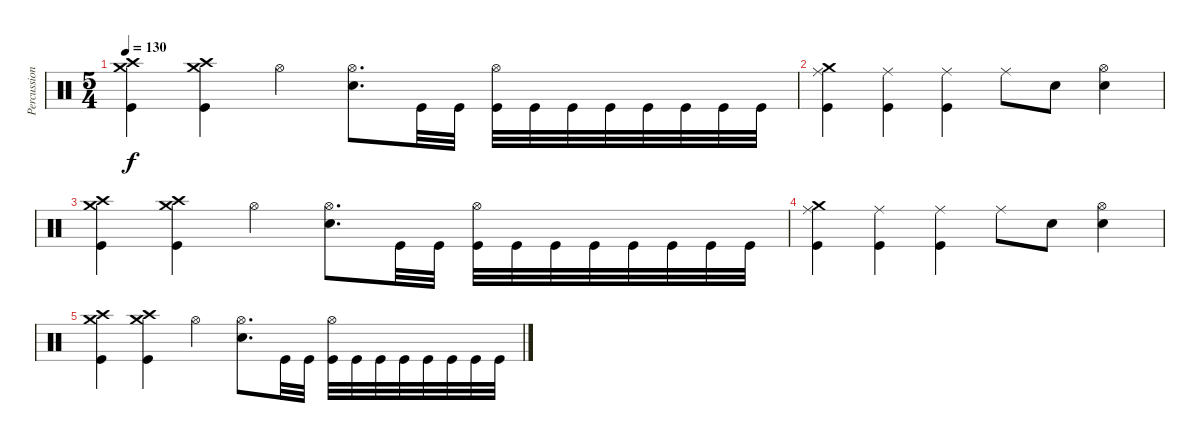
\track ("Percussion" "Percussion") {instrument percussion}
\staff {score}
\articulation defaults
\ts (5 4)
\tempo 130
\clef neutral
\ks c
("Kick (hit)" "Crash medium (hit)" "Crash high (hit)").4{dy f} ("Kick (hit)" "Crash medium (hit)" "Crash high (hit)").4 "Hi-Hat (open)".4 ("Snare (hit) 2" "Hi-Hat (open)").8{d} "Kick (hit)".32 "Kick (hit)".32 ("Kick (hit)" "Hi-Hat (open)").32 "Kick (hit)".32 "Kick (hit)".32 "Kick (hit)".32 "Kick (hit)".32 "Kick (hit)".32 "Kick (hit)".32 "Kick (hit)".32 |
("Kick (hit)" "Ride (middle)" "Crash medium (hit)").4 ("Kick (hit)" "Ride (middle)").4 ("Kick (hit)" "Ride (middle)").4 "Ride (middle)".8 "Snare (hit) 2".8 ("Snare (hit) 2" "Hi-Hat (open)").4 |
("Kick (hit)" "Crash medium (hit)" "Crash high (hit)").4 ("Kick (hit)" "Crash medium (hit)" "Crash high (hit)").4 "Hi-Hat (open)".4 ("Snare (hit) 2" "Hi-Hat (open)").8{d} "Kick (hit)".32 "Kick (hit)".32 ("Kick (hit)" "Hi-Hat (open)").32 "Kick (hit)".32 "Kick (hit)".32 "Kick (hit)".32 "Kick (hit)".32 "Kick (hit)".32 "Kick (hit)".32 "Kick (hit)".32 |
("Kick (hit)" "Ride (middle)" "Crash medium (hit)").4 ("Kick (hit)" "Ride (middle)").4 ("Kick (hit)" "Ride (middle)").4 "Ride (middle)".8 "Snare (hit) 2".8 ("Snare (hit) 2" "Hi-Hat (open)").4 |
("Kick (hit)" "Crash medium (hit)" "Crash high (hit)").4 ("Kick (hit)" "Crash medium (hit)" "Crash high (hit)").4 "Hi-Hat (open)".4 ("Snare (hit) 2" "Hi-Hat (open)").8{d} "Kick (hit)".32 "Kick (hit)".32 ("Kick (hit)" "Hi-Hat (open)").32 "Kick (hit)".32 "Kick (hit)".32 "Kick (hit)".32 "Kick (hit)".32 "Kick (hit)".32 "Kick (hit)".32 "Kick (hit)".32
